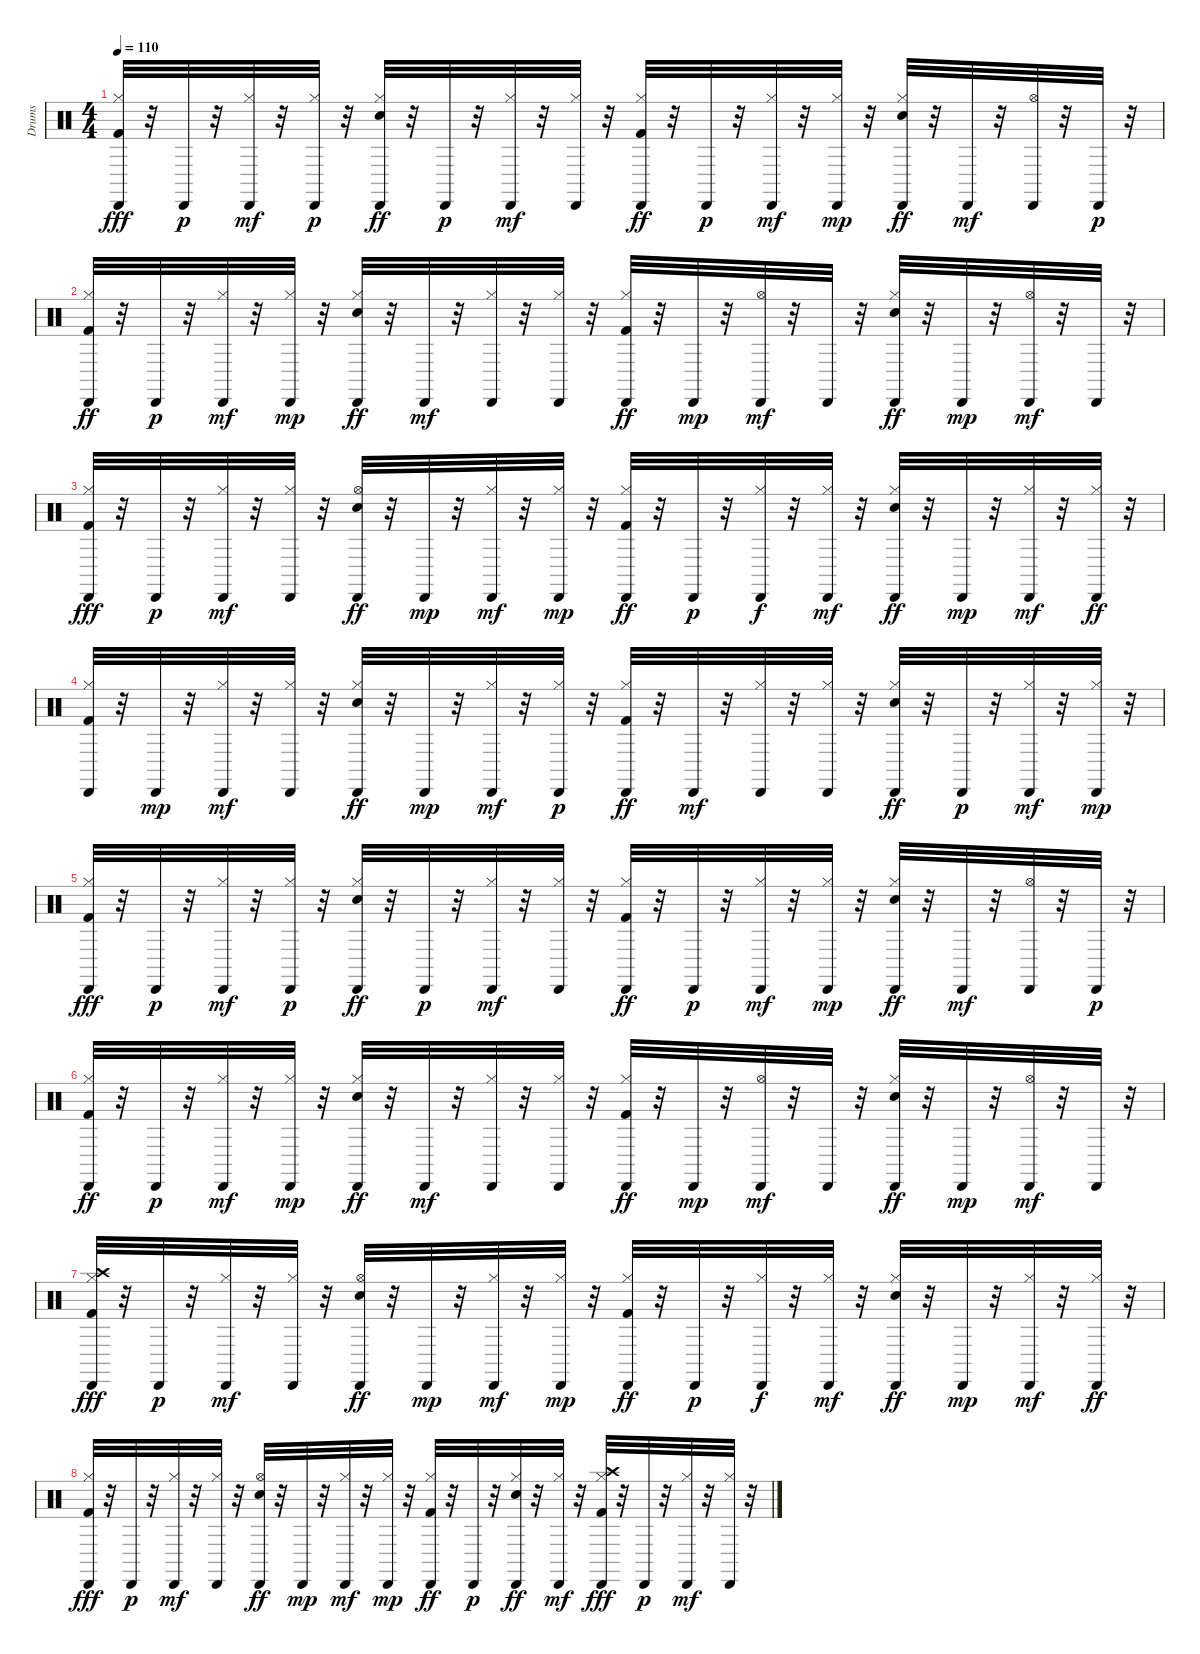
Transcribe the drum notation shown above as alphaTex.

\track ("Drums" "Drums") {instrument percussion}
\staff {score}
\articulation defaults
\ts (4 4)
\tempo 110
\clef neutral
\ks c
("Cabasa (hit)" "Hi-Hat (closed)" "Kick (hit) 2").32{dy fff} r.32 "Cabasa (hit)".32{dy p} r.32 ("Cabasa (hit)" "Hi-Hat (closed)").32{dy mf} r.32 ("Cabasa (hit)" "Hi-Hat (closed)").32{dy p} r.32 ("Cabasa (hit)" "Hi-Hat (closed)" "Snare (hit) 2").32{dy ff} r.32 "Cabasa (hit)".32{dy p} r.32 ("Cabasa (hit)" "Hi-Hat (closed)").32{dy mf} r.32 ("Cabasa (hit)" "Hi-Hat (closed)").32 r.32 ("Cabasa (hit)" "Hi-Hat (closed)" "Kick (hit) 2").32{dy ff} r.32 "Cabasa (hit)".32{dy p} r.32 ("Cabasa (hit)" "Hi-Hat (closed)").32{dy mf} r.32 ("Cabasa (hit)" "Hi-Hat (closed)").32{dy mp} r.32 ("Cabasa (hit)" "Hi-Hat (closed)" "Snare (hit) 2").32{dy ff} r.32 "Cabasa (hit)".32{dy mf} r.32 ("Hi-Hat (open)" "Cabasa (hit)").32 r.32 "Cabasa (hit)".32{dy p} r.32 |
("Cabasa (hit)" "Hi-Hat (closed)" "Kick (hit) 2").32{dy ff} r.32 "Cabasa (hit)".32{dy p} r.32 ("Cabasa (hit)" "Hi-Hat (closed)").32{dy mf} r.32 ("Cabasa (hit)" "Hi-Hat (closed)").32{dy mp} r.32 ("Cabasa (hit)" "Hi-Hat (closed)" "Snare (hit) 2").32{dy ff} r.32 "Cabasa (hit)".32{dy mf} r.32 ("Cabasa (hit)" "Hi-Hat (closed)").32 r.32 ("Cabasa (hit)" "Hi-Hat (closed)").32 r.32 ("Cabasa (hit)" "Hi-Hat (closed)" "Kick (hit) 2").32{dy ff} r.32 "Cabasa (hit)".32{dy mp} r.32 ("Hi-Hat (open)" "Cabasa (hit)").32{dy mf} r.32 "Cabasa (hit)".32 r.32 ("Cabasa (hit)" "Hi-Hat (closed)" "Snare (hit) 2").32{dy ff} r.32 "Cabasa (hit)".32{dy mp} r.32 ("Hi-Hat (open)" "Cabasa (hit)").32{dy mf} r.32 "Cabasa (hit)".32 r.32 |
("Cabasa (hit)" "Hi-Hat (closed)" "Kick (hit) 2").32{dy fff} r.32 "Cabasa (hit)".32{dy p} r.32 ("Cabasa (hit)" "Hi-Hat (closed)").32{dy mf} r.32 ("Cabasa (hit)" "Hi-Hat (closed)").32 r.32 ("Hi-Hat (open)" "Cabasa (hit)" "Snare (hit) 2").32{dy ff} r.32 "Cabasa (hit)".32{dy mp} r.32 ("Cabasa (hit)" "Hi-Hat (closed)").32{dy mf} r.32 ("Cabasa (hit)" "Hi-Hat (closed)").32{dy mp} r.32 ("Cabasa (hit)" "Hi-Hat (closed)" "Kick (hit) 2").32{dy ff} r.32 "Cabasa (hit)".32{dy p} r.32 ("Cabasa (hit)" "Hi-Hat (closed)").32{dy f} r.32 ("Cabasa (hit)" "Hi-Hat (closed)").32{dy mf} r.32 ("Cabasa (hit)" "Hi-Hat (closed)" "Snare (hit) 2").32{dy ff} r.32 "Cabasa (hit)".32{dy mp} r.32 ("Cabasa (hit)" "Hi-Hat (closed)").32{dy mf} r.32 ("Cabasa (hit)" "Hi-Hat (closed)").32{dy ff} r.32 |
("Cabasa (hit)" "Hi-Hat (closed)" "Kick (hit) 2").32 r.32 "Cabasa (hit)".32{dy mp} r.32 ("Cabasa (hit)" "Hi-Hat (closed)").32{dy mf} r.32 ("Cabasa (hit)" "Hi-Hat (closed)").32 r.32 ("Cabasa (hit)" "Hi-Hat (closed)" "Snare (hit) 2").32{dy ff} r.32 "Cabasa (hit)".32{dy mp} r.32 ("Cabasa (hit)" "Hi-Hat (closed)").32{dy mf} r.32 ("Cabasa (hit)" "Hi-Hat (closed)").32{dy p} r.32 ("Cabasa (hit)" "Hi-Hat (closed)" "Kick (hit) 2").32{dy ff} r.32 "Cabasa (hit)".32{dy mf} r.32 ("Cabasa (hit)" "Hi-Hat (closed)").32 r.32 ("Cabasa (hit)" "Hi-Hat (closed)").32 r.32 ("Cabasa (hit)" "Hi-Hat (closed)" "Snare (hit) 2").32{dy ff} r.32 "Cabasa (hit)".32{dy p} r.32 ("Cabasa (hit)" "Hi-Hat (closed)").32{dy mf} r.32 ("Cabasa (hit)" "Hi-Hat (closed)").32{dy mp} r.32 |
("Cabasa (hit)" "Hi-Hat (closed)" "Kick (hit) 2").32{dy fff} r.32 "Cabasa (hit)".32{dy p} r.32 ("Cabasa (hit)" "Hi-Hat (closed)").32{dy mf} r.32 ("Cabasa (hit)" "Hi-Hat (closed)").32{dy p} r.32 ("Cabasa (hit)" "Hi-Hat (closed)" "Snare (hit) 2").32{dy ff} r.32 "Cabasa (hit)".32{dy p} r.32 ("Cabasa (hit)" "Hi-Hat (closed)").32{dy mf} r.32 ("Cabasa (hit)" "Hi-Hat (closed)").32 r.32 ("Cabasa (hit)" "Hi-Hat (closed)" "Kick (hit) 2").32{dy ff} r.32 "Cabasa (hit)".32{dy p} r.32 ("Cabasa (hit)" "Hi-Hat (closed)").32{dy mf} r.32 ("Cabasa (hit)" "Hi-Hat (closed)").32{dy mp} r.32 ("Cabasa (hit)" "Hi-Hat (closed)" "Snare (hit) 2").32{dy ff} r.32 "Cabasa (hit)".32{dy mf} r.32 ("Hi-Hat (open)" "Cabasa (hit)").32 r.32 "Cabasa (hit)".32{dy p} r.32 |
("Cabasa (hit)" "Hi-Hat (closed)" "Kick (hit) 2").32{dy ff} r.32 "Cabasa (hit)".32{dy p} r.32 ("Cabasa (hit)" "Hi-Hat (closed)").32{dy mf} r.32 ("Cabasa (hit)" "Hi-Hat (closed)").32{dy mp} r.32 ("Cabasa (hit)" "Hi-Hat (closed)" "Snare (hit) 2").32{dy ff} r.32 "Cabasa (hit)".32{dy mf} r.32 ("Cabasa (hit)" "Hi-Hat (closed)").32 r.32 ("Cabasa (hit)" "Hi-Hat (closed)").32 r.32 ("Cabasa (hit)" "Hi-Hat (closed)" "Kick (hit) 2").32{dy ff} r.32 "Cabasa (hit)".32{dy mp} r.32 ("Hi-Hat (open)" "Cabasa (hit)").32{dy mf} r.32 "Cabasa (hit)".32 r.32 ("Cabasa (hit)" "Hi-Hat (closed)" "Snare (hit) 2").32{dy ff} r.32 "Cabasa (hit)".32{dy mp} r.32 ("Hi-Hat (open)" "Cabasa (hit)").32{dy mf} r.32 "Cabasa (hit)".32 r.32 |
("Cabasa (hit)" "Crash high (hit)" "Hi-Hat (closed)" "Kick (hit) 2").32{dy fff} r.32 "Cabasa (hit)".32{dy p} r.32 ("Cabasa (hit)" "Hi-Hat (closed)").32{dy mf} r.32 ("Cabasa (hit)" "Hi-Hat (closed)").32 r.32 ("Hi-Hat (open)" "Cabasa (hit)" "Snare (hit) 2").32{dy ff} r.32 "Cabasa (hit)".32{dy mp} r.32 ("Cabasa (hit)" "Hi-Hat (closed)").32{dy mf} r.32 ("Cabasa (hit)" "Hi-Hat (closed)").32{dy mp} r.32 ("Cabasa (hit)" "Hi-Hat (closed)" "Kick (hit) 2").32{dy ff} r.32 "Cabasa (hit)".32{dy p} r.32 ("Cabasa (hit)" "Hi-Hat (closed)").32{dy f} r.32 ("Cabasa (hit)" "Hi-Hat (closed)").32{dy mf} r.32 ("Cabasa (hit)" "Hi-Hat (closed)" "Snare (hit) 2").32{dy ff} r.32 "Cabasa (hit)".32{dy mp} r.32 ("Cabasa (hit)" "Hi-Hat (closed)").32{dy mf} r.32 ("Cabasa (hit)" "Hi-Hat (closed)").32{dy ff} r.32 |
("Cabasa (hit)" "Hi-Hat (closed)" "Kick (hit) 2").32{dy fff} r.32 "Cabasa (hit)".32{dy p} r.32 ("Cabasa (hit)" "Hi-Hat (closed)").32{dy mf} r.32 ("Cabasa (hit)" "Hi-Hat (closed)").32 r.32 ("Hi-Hat (open)" "Cabasa (hit)" "Snare (hit) 2").32{dy ff} r.32 "Cabasa (hit)".32{dy mp} r.32 ("Cabasa (hit)" "Hi-Hat (closed)").32{dy mf} r.32 ("Cabasa (hit)" "Hi-Hat (closed)").32{dy mp} r.32 ("Cabasa (hit)" "Hi-Hat (closed)" "Kick (hit) 2").32{dy ff} r.32 "Cabasa (hit)".32{dy p} r.32 ("Cabasa (hit)" "Hi-Hat (closed)" "Snare (hit) 2").32{dy ff} r.32 ("Cabasa (hit)" "Hi-Hat (closed)").32{dy mf} r.32 ("Cabasa (hit)" "Crash high (hit)" "Hi-Hat (closed)" "Kick (hit) 2").32{dy fff} r.32 "Cabasa (hit)".32{dy p} r.32 ("Cabasa (hit)" "Hi-Hat (closed)").32{dy mf} r.32 ("Cabasa (hit)" "Hi-Hat (closed)").32 r.32
